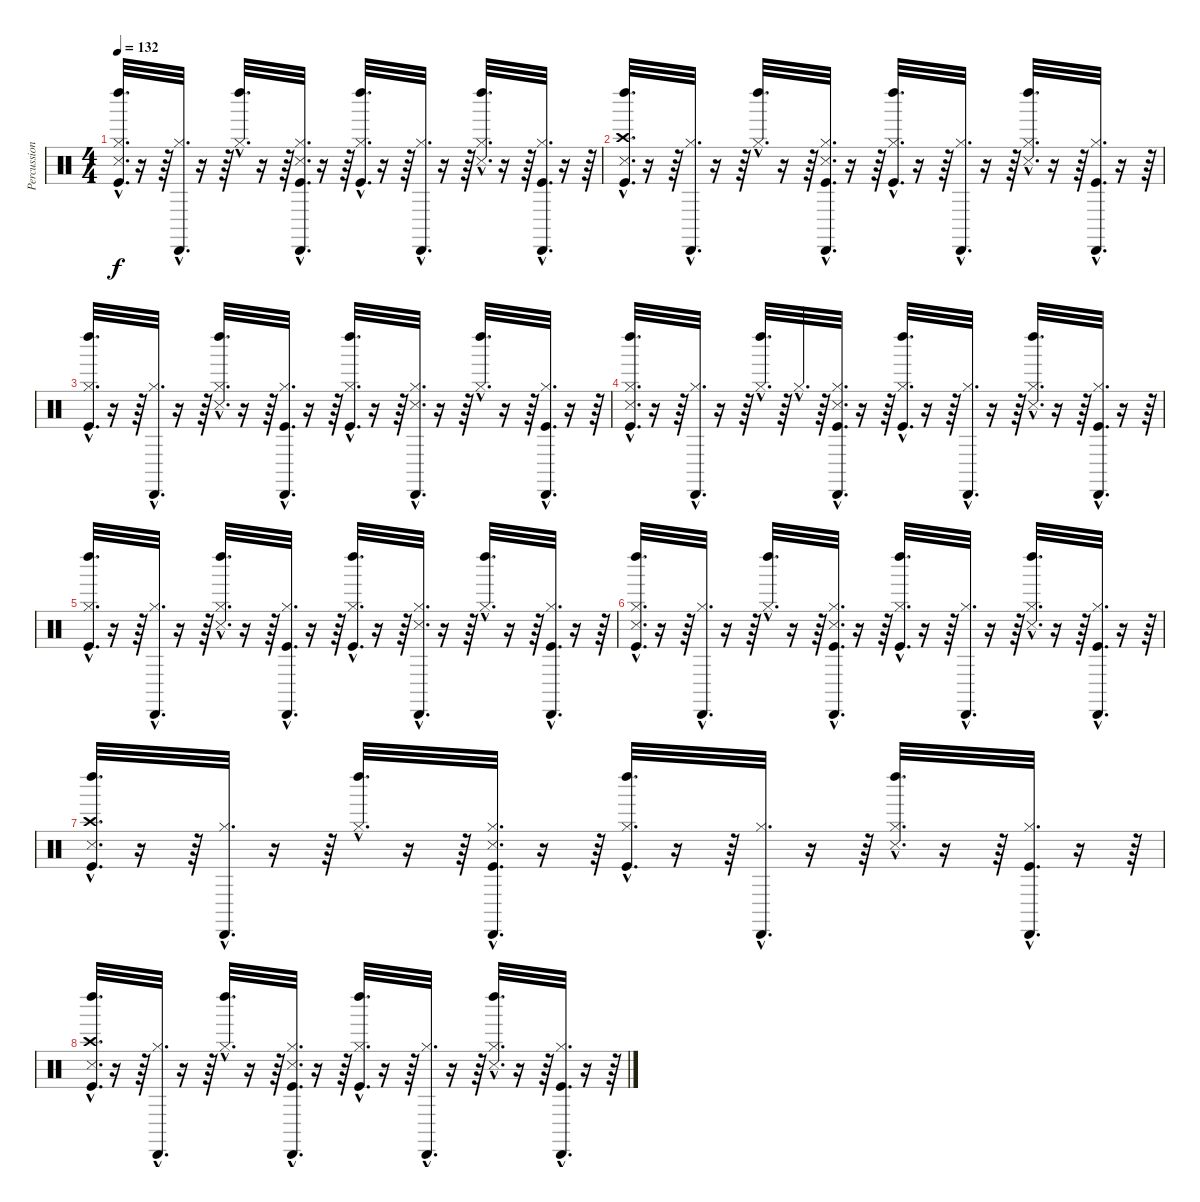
\track ("Percussions" "Percussion") {instrument percussion}
\staff {score}
\articulation defaults
\ts (4 4)
\tempo 132
\clef neutral
\ks c
("Kick (hit)"{hac} "Hi-Hat (closed)"{hac} "Snare (side stick) 3"{hac} "Left Maraca (hit)"{hac}).32{d dy f} r.16 r.64 ("Hi-Hat (closed)"{hac} "Cabasa (hit)"{hac}).32{d} r.16 r.64 ("Hi-Hat (closed)"{hac} "Left Maraca (hit)"{hac}).32{d} r.16 r.64 ("Kick (hit)"{hac} "Hi-Hat (closed)"{hac} "Snare (side stick) 3"{hac} "Cabasa (hit)"{hac}).32{d} r.16 r.64 ("Kick (hit)"{hac} "Hi-Hat (closed)"{hac} "Left Maraca (hit)"{hac}).32{d} r.16 r.64 ("Hi-Hat (closed)"{hac} "Cabasa (hit)"{hac}).32{d} r.16 r.64 ("Hi-Hat (closed)"{hac} "Snare (side stick) 3"{hac} "Left Maraca (hit)"{hac}).32{d} r.16 r.64 ("Kick (hit)"{hac} "Hi-Hat (closed)"{hac} "Cabasa (hit)"{hac}).32{d} r.16 r.64 |
("Kick (hit)"{hac} "Snare (side stick) 3"{hac} "Crash high (hit)"{hac} "Left Maraca (hit)"{hac}).32{d} r.16 r.64 ("Hi-Hat (closed)"{hac} "Cabasa (hit)"{hac}).32{d} r.16 r.64 ("Hi-Hat (closed)"{hac} "Left Maraca (hit)"{hac}).32{d} r.16 r.64 ("Kick (hit)"{hac} "Hi-Hat (closed)"{hac} "Snare (side stick) 3"{hac} "Cabasa (hit)"{hac}).32{d} r.16 r.64 ("Kick (hit)"{hac} "Hi-Hat (closed)"{hac} "Left Maraca (hit)"{hac}).32{d} r.16 r.64 ("Hi-Hat (closed)"{hac} "Cabasa (hit)"{hac}).32{d} r.16 r.64 ("Hi-Hat (closed)"{hac} "Snare (side stick) 3"{hac} "Left Maraca (hit)"{hac}).32{d} r.16 r.64 ("Kick (hit)"{hac} "Hi-Hat (closed)"{hac} "Cabasa (hit)"{hac}).32{d} r.16 r.64 |
("Kick (hit)"{hac} "Hi-Hat (closed)"{hac} "Left Maraca (hit)"{hac}).32{d} r.16 r.64 ("Hi-Hat (closed)"{hac} "Cabasa (hit)"{hac}).32{d} r.16 r.64 ("Hi-Hat (closed)"{hac} "Snare (side stick) 3"{hac} "Left Maraca (hit)"{hac}).32{d} r.16 r.64 ("Kick (hit)"{hac} "Hi-Hat (closed)"{hac} "Cabasa (hit)"{hac}).32{d} r.16 r.64 ("Kick (hit)"{hac} "Hi-Hat (closed)"{hac} "Left Maraca (hit)"{hac}).32{d} r.16 r.64 ("Hi-Hat (closed)"{hac} "Snare (side stick) 3"{hac} "Cabasa (hit)"{hac}).32{d} r.16 r.64 ("Hi-Hat (closed)"{hac} "Left Maraca (hit)"{hac}).32{d} r.16 r.64 ("Kick (hit)"{hac} "Hi-Hat (closed)"{hac} "Cabasa (hit)"{hac}).32{d} r.16 r.64 |
("Kick (hit)"{hac} "Hi-Hat (closed)"{hac} "Snare (side stick) 3"{hac} "Left Maraca (hit)"{hac}).32{d} r.16 r.64 ("Hi-Hat (closed)"{hac} "Cabasa (hit)"{hac}).32{d} r.16 r.64 ("Hi-Hat (closed)"{hac} "Left Maraca (hit)"{hac}).32{d} r.64 "Hi-Hat (closed)"{hac}.32{d} r.64 ("Kick (hit)"{hac} "Hi-Hat (closed)"{hac} "Snare (side stick) 3"{hac} "Cabasa (hit)"{hac}).32{d} r.16 r.64 ("Kick (hit)"{hac} "Hi-Hat (closed)"{hac} "Left Maraca (hit)"{hac}).32{d} r.16 r.64 ("Hi-Hat (closed)"{hac} "Cabasa (hit)"{hac}).32{d} r.16 r.64 ("Hi-Hat (closed)"{hac} "Snare (side stick) 3"{hac} "Left Maraca (hit)"{hac}).32{d} r.16 r.64 ("Kick (hit)"{hac} "Hi-Hat (closed)"{hac} "Cabasa (hit)"{hac}).32{d} r.16 r.64 |
("Kick (hit)"{hac} "Hi-Hat (closed)"{hac} "Left Maraca (hit)"{hac}).32{d} r.16 r.64 ("Hi-Hat (closed)"{hac} "Cabasa (hit)"{hac}).32{d} r.16 r.64 ("Hi-Hat (closed)"{hac} "Snare (side stick) 3"{hac} "Left Maraca (hit)"{hac}).32{d} r.16 r.64 ("Kick (hit)"{hac} "Hi-Hat (closed)"{hac} "Cabasa (hit)"{hac}).32{d} r.16 r.64 ("Kick (hit)"{hac} "Hi-Hat (closed)"{hac} "Left Maraca (hit)"{hac}).32{d} r.16 r.64 ("Hi-Hat (closed)"{hac} "Snare (side stick) 3"{hac} "Cabasa (hit)"{hac}).32{d} r.16 r.64 ("Hi-Hat (closed)"{hac} "Left Maraca (hit)"{hac}).32{d} r.16 r.64 ("Kick (hit)"{hac} "Hi-Hat (closed)"{hac} "Cabasa (hit)"{hac}).32{d} r.16 r.64 |
("Kick (hit)"{hac} "Hi-Hat (closed)"{hac} "Snare (side stick) 3"{hac} "Left Maraca (hit)"{hac}).32{d} r.16 r.64 ("Hi-Hat (closed)"{hac} "Cabasa (hit)"{hac}).32{d} r.16 r.64 ("Hi-Hat (closed)"{hac} "Left Maraca (hit)"{hac}).32{d} r.16 r.64 ("Kick (hit)"{hac} "Hi-Hat (closed)"{hac} "Snare (side stick) 3"{hac} "Cabasa (hit)"{hac}).32{d} r.16 r.64 ("Kick (hit)"{hac} "Hi-Hat (closed)"{hac} "Left Maraca (hit)"{hac}).32{d} r.16 r.64 ("Hi-Hat (closed)"{hac} "Cabasa (hit)"{hac}).32{d} r.16 r.64 ("Hi-Hat (closed)"{hac} "Snare (side stick) 3"{hac} "Left Maraca (hit)"{hac}).32{d} r.16 r.64 ("Kick (hit)"{hac} "Hi-Hat (closed)"{hac} "Cabasa (hit)"{hac}).32{d} r.16 r.64 |
("Kick (hit)"{hac} "Snare (side stick) 3"{hac} "Crash high (hit)"{hac} "Left Maraca (hit)"{hac}).32{d} r.16 r.64 ("Hi-Hat (closed)"{hac} "Cabasa (hit)"{hac}).32{d} r.16 r.64 ("Hi-Hat (closed)"{hac} "Left Maraca (hit)"{hac}).32{d} r.16 r.64 ("Kick (hit)"{hac} "Hi-Hat (closed)"{hac} "Snare (side stick) 3"{hac} "Cabasa (hit)"{hac}).32{d} r.16 r.64 ("Kick (hit)"{hac} "Hi-Hat (closed)"{hac} "Left Maraca (hit)"{hac}).32{d} r.16 r.64 ("Hi-Hat (closed)"{hac} "Cabasa (hit)"{hac}).32{d} r.16 r.64 ("Hi-Hat (closed)"{hac} "Snare (side stick) 3"{hac} "Left Maraca (hit)"{hac}).32{d} r.16 r.64 ("Kick (hit)"{hac} "Hi-Hat (closed)"{hac} "Cabasa (hit)"{hac}).32{d} r.16 r.64 |
("Kick (hit)"{hac} "Snare (side stick) 3"{hac} "Crash high (hit)"{hac} "Left Maraca (hit)"{hac}).32{d} r.16 r.64 ("Hi-Hat (closed)"{hac} "Cabasa (hit)"{hac}).32{d} r.16 r.64 ("Hi-Hat (closed)"{hac} "Left Maraca (hit)"{hac}).32{d} r.16 r.64 ("Kick (hit)"{hac} "Hi-Hat (closed)"{hac} "Snare (side stick) 3"{hac} "Cabasa (hit)"{hac}).32{d} r.16 r.64 ("Kick (hit)"{hac} "Hi-Hat (closed)"{hac} "Left Maraca (hit)"{hac}).32{d} r.16 r.64 ("Hi-Hat (closed)"{hac} "Cabasa (hit)"{hac}).32{d} r.16 r.64 ("Hi-Hat (closed)"{hac} "Snare (side stick) 3"{hac} "Left Maraca (hit)"{hac}).32{d} r.16 r.64 ("Kick (hit)"{hac} "Hi-Hat (closed)"{hac} "Cabasa (hit)"{hac}).32{d} r.16 r.64
